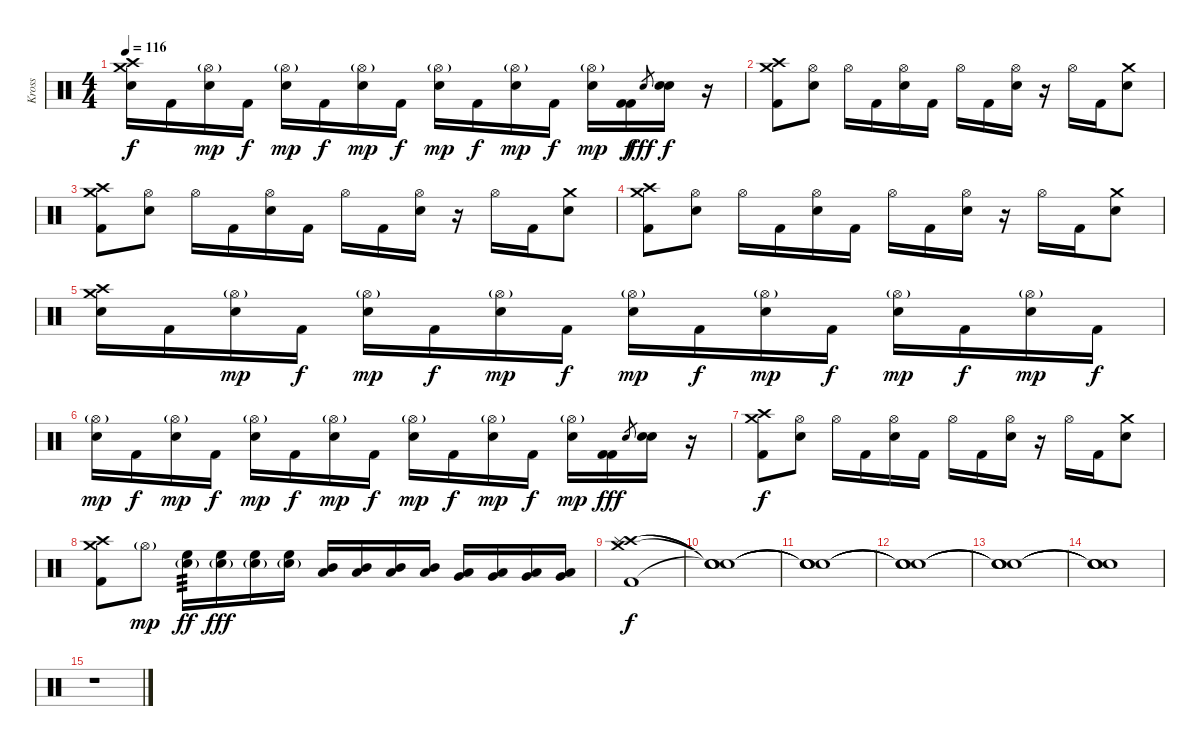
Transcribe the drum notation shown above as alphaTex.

\track ("Kross" "Kross") {instrument percussion}
\staff {score}
\articulation defaults
\ts (4 4)
\tempo 116
\clef neutral
\ks c
("Crash medium (hit)" "Crash high (hit)" "Electric Snare (hit)").16{dy f} "Kick (hit) 2".16 ("Hi-Hat (open)"{g} "Electric Snare (hit)").16{dy mp} "Kick (hit) 2".16{dy f} ("Hi-Hat (open)"{g} "Electric Snare (hit)").16{dy mp} "Kick (hit) 2".16{dy f} ("Hi-Hat (open)"{g} "Electric Snare (hit)").16{dy mp} "Kick (hit) 2".16{dy f} ("Hi-Hat (open)"{g} "Electric Snare (hit)").16{dy mp} "Kick (hit) 2".16{dy f} ("Hi-Hat (open)"{g} "Electric Snare (hit)").16{dy mp} "Kick (hit) 2".16{dy f} ("Hi-Hat (open)"{g} "Electric Snare (hit)").16{dy mp} ("Kick (hit) 2" "Kick (hit) 2").16{dy f} "Electric Snare (hit)".8{gr dy fff} ("Electric Snare (hit)" "Electric Snare (hit)").16{dy f} r.16 |
("Crash medium (hit)" "Crash high (hit)" "Kick (hit) 2").8 ("Hi-Hat (open)" "Electric Snare (hit)").8 "Hi-Hat (open)".16 "Kick (hit) 2".16 ("Hi-Hat (open)" "Electric Snare (hit)").16 "Kick (hit) 2".16 "Hi-Hat (open)".16 "Kick (hit) 2".16 ("Hi-Hat (open)" "Electric Snare (hit)").16 r.16 "Hi-Hat (open)".16 "Kick (hit) 2".16 ("Crash medium (hit)" "Electric Snare (hit)").8 |
("Crash medium (hit)" "Crash high (hit)" "Kick (hit) 2").8 ("Hi-Hat (open)" "Electric Snare (hit)").8 "Hi-Hat (open)".16 "Kick (hit) 2".16 ("Hi-Hat (open)" "Electric Snare (hit)").16 "Kick (hit) 2".16 "Hi-Hat (open)".16 "Kick (hit) 2".16 ("Hi-Hat (open)" "Electric Snare (hit)").16 r.16 "Hi-Hat (open)".16 "Kick (hit) 2".16 ("Crash medium (hit)" "Electric Snare (hit)").8 |
("Crash medium (hit)" "Crash high (hit)" "Kick (hit) 2").8 ("Hi-Hat (open)" "Electric Snare (hit)").8 "Hi-Hat (open)".16 "Kick (hit) 2".16 ("Hi-Hat (open)" "Electric Snare (hit)").16 "Kick (hit) 2".16 "Hi-Hat (open)".16 "Kick (hit) 2".16 ("Hi-Hat (open)" "Electric Snare (hit)").16 r.16 "Hi-Hat (open)".16 "Kick (hit) 2".16 ("Crash medium (hit)" "Electric Snare (hit)").8 |
("Crash medium (hit)" "Crash high (hit)" "Electric Snare (hit)").16 "Kick (hit) 2".16 ("Hi-Hat (open)"{g} "Electric Snare (hit)").16{dy mp} "Kick (hit) 2".16{dy f} ("Hi-Hat (open)"{g} "Electric Snare (hit)").16{dy mp} "Kick (hit) 2".16{dy f} ("Hi-Hat (open)"{g} "Electric Snare (hit)").16{dy mp} "Kick (hit) 2".16{dy f} ("Hi-Hat (open)"{g} "Electric Snare (hit)").16{dy mp} "Kick (hit) 2".16{dy f} ("Hi-Hat (open)"{g} "Electric Snare (hit)").16{dy mp} "Kick (hit) 2".16{dy f} ("Hi-Hat (open)"{g} "Electric Snare (hit)").16{dy mp} "Kick (hit) 2".16{dy f} ("Hi-Hat (open)"{g} "Electric Snare (hit)").16{dy mp} "Kick (hit) 2".16{dy f} |
("Hi-Hat (open)"{g} "Electric Snare (hit)").16{dy mp} "Kick (hit) 2".16{dy f} ("Hi-Hat (open)"{g} "Electric Snare (hit)").16{dy mp} "Kick (hit) 2".16{dy f} ("Hi-Hat (open)"{g} "Electric Snare (hit)").16{dy mp} "Kick (hit) 2".16{dy f} ("Hi-Hat (open)"{g} "Electric Snare (hit)").16{dy mp} "Kick (hit) 2".16{dy f} ("Hi-Hat (open)"{g} "Electric Snare (hit)").16{dy mp} "Kick (hit) 2".16{dy f} ("Hi-Hat (open)"{g} "Electric Snare (hit)").16{dy mp} "Kick (hit) 2".16{dy f} ("Hi-Hat (open)"{g} "Electric Snare (hit)").16{dy mp} ("Kick (hit) 2" "Kick (hit) 2").16{dy fff} "Electric Snare (hit)".8{gr} ("Electric Snare (hit)" "Electric Snare (hit)").16 r.16 |
("Crash medium (hit)" "Crash high (hit)" "Kick (hit) 2").8{dy f} ("Hi-Hat (open)" "Electric Snare (hit)").8 "Hi-Hat (open)".16 "Kick (hit) 2".16 ("Hi-Hat (open)" "Electric Snare (hit)").16 "Kick (hit) 2".16 "Hi-Hat (open)".16 "Kick (hit) 2".16 ("Hi-Hat (open)" "Electric Snare (hit)").16 r.16 "Hi-Hat (open)".16 "Kick (hit) 2".16 ("Crash medium (hit)" "Electric Snare (hit)").8 |
("Crash medium (hit)" "Crash high (hit)" "Kick (hit) 2").8 "Hi-Hat (open)"{g}.8{dy mp} ("Electric Snare (hit)"{g} "High Floor Tom (hit)").16{tp 3 dy ff} ("Electric Snare (hit)"{g} "High Floor Tom (hit)").16{dy fff} ("Electric Snare (hit)"{g} "High Floor Tom (hit)").16 ("Electric Snare (hit)"{g} "High Floor Tom (hit)").16 ("Low Tom (hit)" "Mid Tom (hit)").16 ("Low Tom (hit)" "Mid Tom (hit)").16 ("Low Tom (hit)" "Mid Tom (hit)").16 ("Low Tom (hit)" "Mid Tom (hit)").16 ("Very Low Tom (hit)" "Low Floor Tom (hit)").16 ("Very Low Tom (hit)" "Low Floor Tom (hit)").16 ("Very Low Tom (hit)" "Low Floor Tom (hit)").16 ("Very Low Tom (hit)" "Low Floor Tom (hit)").16 |
("Crash medium (hit)" "Crash high (hit)" "Splash (hit)" "Kick (hit) 2").1{dy f} |
("Snare (hit)"{t} "Snare (hit)"{t} "Snare (hit)"{t} "Snare (hit)"{t}).1 |
("Snare (hit)"{t} "Snare (hit)"{t} "Snare (hit)"{t} "Snare (hit)"{t}).1{volume 12} |
("Snare (hit)"{t} "Snare (hit)"{t} "Snare (hit)"{t} "Snare (hit)"{t}).1{volume 8} |
("Snare (hit)"{t} "Snare (hit)"{t} "Snare (hit)"{t} "Snare (hit)"{t}).1{volume 4} |
("Snare (hit)"{t} "Snare (hit)"{t} "Snare (hit)"{t} "Snare (hit)"{t}).1{volume 2} |
r.1
